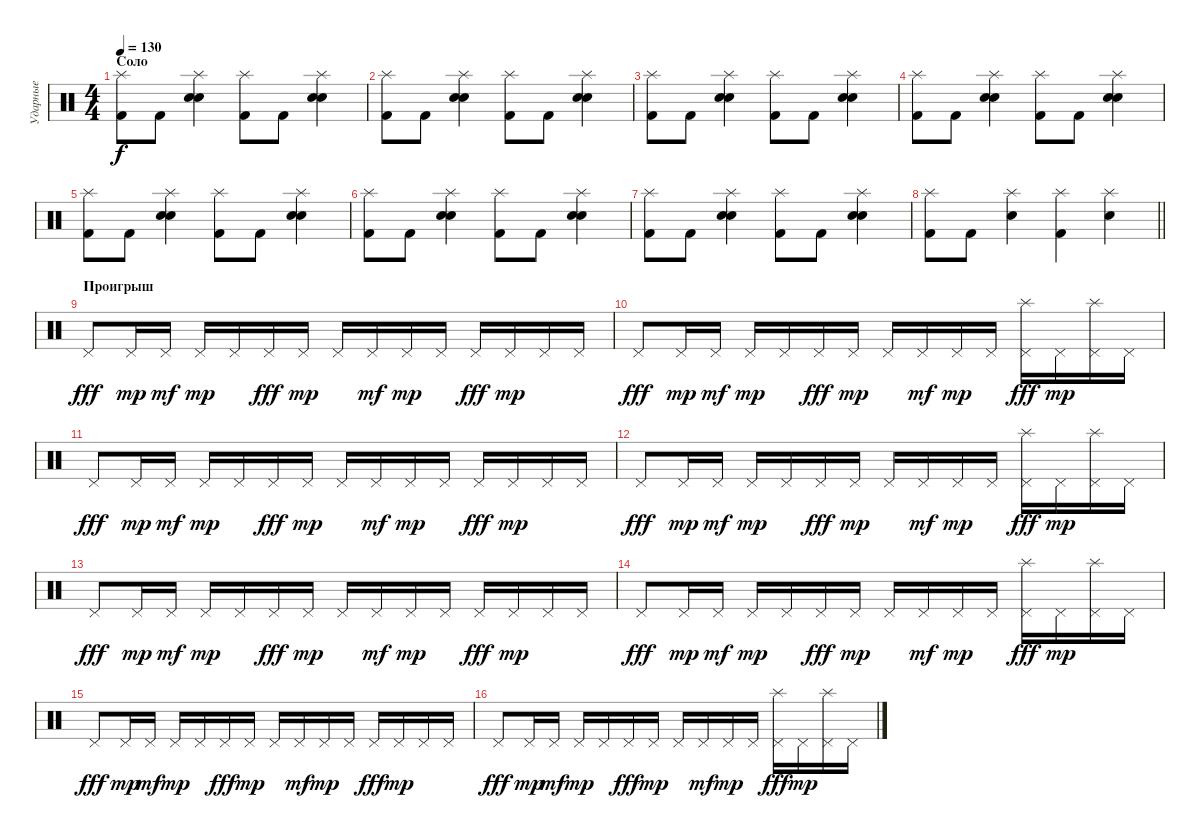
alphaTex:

\track ("Ударные" "Ударные") {instrument percussion}
\staff {score}
\articulation defaults
\ts (4 4)
\section ("" "Соло")
\tempo 130
\clef neutral
\ks c
("Splash (hit)" "Kick (hit) 2").8{dy f} "Kick (hit) 2".8 ("Splash (hit)" "Electric Snare (hit)" "Snare (hit) 2").4 ("Splash (hit)" "Kick (hit) 2").8 "Kick (hit) 2".8 ("Splash (hit)" "Electric Snare (hit)" "Snare (hit) 2").4 |
("Splash (hit)" "Kick (hit) 2").8 "Kick (hit) 2".8 ("Splash (hit)" "Electric Snare (hit)" "Snare (hit) 2").4 ("Splash (hit)" "Kick (hit) 2").8 "Kick (hit) 2".8 ("Splash (hit)" "Electric Snare (hit)" "Snare (hit) 2").4 |
("Splash (hit)" "Kick (hit) 2").8 "Kick (hit) 2".8 ("Splash (hit)" "Electric Snare (hit)" "Snare (hit) 2").4 ("Splash (hit)" "Kick (hit) 2").8 "Kick (hit) 2".8 ("Splash (hit)" "Electric Snare (hit)" "Snare (hit) 2").4 |
("Splash (hit)" "Kick (hit) 2").8 "Kick (hit) 2".8 ("Splash (hit)" "Electric Snare (hit)" "Snare (hit) 2").4 ("Splash (hit)" "Kick (hit) 2").8 "Kick (hit) 2".8 ("Splash (hit)" "Electric Snare (hit)" "Snare (hit) 2").4 |
("Splash (hit)" "Kick (hit) 2").8 "Kick (hit) 2".8 ("Splash (hit)" "Electric Snare (hit)" "Snare (hit) 2").4 ("Splash (hit)" "Kick (hit) 2").8 "Kick (hit) 2".8 ("Splash (hit)" "Electric Snare (hit)" "Snare (hit) 2").4 |
("Splash (hit)" "Kick (hit) 2").8 "Kick (hit) 2".8 ("Splash (hit)" "Electric Snare (hit)" "Snare (hit) 2").4 ("Splash (hit)" "Kick (hit) 2").8 "Kick (hit) 2".8 ("Splash (hit)" "Electric Snare (hit)" "Snare (hit) 2").4 |
("Splash (hit)" "Kick (hit) 2").8 "Kick (hit) 2".8 ("Splash (hit)" "Electric Snare (hit)" "Snare (hit) 2").4 ("Splash (hit)" "Kick (hit) 2").8 "Kick (hit) 2".8 ("Splash (hit)" "Electric Snare (hit)" "Snare (hit) 2").4 |
\barLineRight lightlight
("Splash (hit)" "Kick (hit) 2").8 "Kick (hit) 2".8 ("Splash (hit)" "Electric Snare (hit)").4 ("Splash (hit)" "Kick (hit) 2").4 ("Splash (hit)" "Electric Snare (hit)").4 |
\section ("" "Проигрыш")
"Pedal Hi-Hat (hit)".8{dy fff volume 10} "Pedal Hi-Hat (hit)".16{dy mp} "Pedal Hi-Hat (hit)".16{dy mf} "Pedal Hi-Hat (hit)".16{dy mp} "Pedal Hi-Hat (hit)".16 "Pedal Hi-Hat (hit)".16{dy fff} "Pedal Hi-Hat (hit)".16{dy mp} "Pedal Hi-Hat (hit)".16 "Pedal Hi-Hat (hit)".16{dy mf} "Pedal Hi-Hat (hit)".16{dy mp} "Pedal Hi-Hat (hit)".16 "Pedal Hi-Hat (hit)".16{dy fff} "Pedal Hi-Hat (hit)".16{dy mp} "Pedal Hi-Hat (hit)".16 "Pedal Hi-Hat (hit)".16 |
"Pedal Hi-Hat (hit)".8{dy fff} "Pedal Hi-Hat (hit)".16{dy mp} "Pedal Hi-Hat (hit)".16{dy mf} "Pedal Hi-Hat (hit)".16{dy mp} "Pedal Hi-Hat (hit)".16 "Pedal Hi-Hat (hit)".16{dy fff} "Pedal Hi-Hat (hit)".16{dy mp} "Pedal Hi-Hat (hit)".16 "Pedal Hi-Hat (hit)".16{dy mf} "Pedal Hi-Hat (hit)".16{dy mp} "Pedal Hi-Hat (hit)".16 ("Splash (hit)" "Pedal Hi-Hat (hit)").16{dy fff} "Pedal Hi-Hat (hit)".16{dy mp} ("Splash (hit)" "Pedal Hi-Hat (hit)").16 "Pedal Hi-Hat (hit)".16 |
"Pedal Hi-Hat (hit)".8{dy fff} "Pedal Hi-Hat (hit)".16{dy mp} "Pedal Hi-Hat (hit)".16{dy mf} "Pedal Hi-Hat (hit)".16{dy mp} "Pedal Hi-Hat (hit)".16 "Pedal Hi-Hat (hit)".16{dy fff} "Pedal Hi-Hat (hit)".16{dy mp} "Pedal Hi-Hat (hit)".16 "Pedal Hi-Hat (hit)".16{dy mf} "Pedal Hi-Hat (hit)".16{dy mp} "Pedal Hi-Hat (hit)".16 "Pedal Hi-Hat (hit)".16{dy fff} "Pedal Hi-Hat (hit)".16{dy mp} "Pedal Hi-Hat (hit)".16 "Pedal Hi-Hat (hit)".16 |
"Pedal Hi-Hat (hit)".8{dy fff} "Pedal Hi-Hat (hit)".16{dy mp} "Pedal Hi-Hat (hit)".16{dy mf} "Pedal Hi-Hat (hit)".16{dy mp} "Pedal Hi-Hat (hit)".16 "Pedal Hi-Hat (hit)".16{dy fff} "Pedal Hi-Hat (hit)".16{dy mp} "Pedal Hi-Hat (hit)".16 "Pedal Hi-Hat (hit)".16{dy mf} "Pedal Hi-Hat (hit)".16{dy mp} "Pedal Hi-Hat (hit)".16 ("Splash (hit)" "Pedal Hi-Hat (hit)").16{dy fff} "Pedal Hi-Hat (hit)".16{dy mp} ("Splash (hit)" "Pedal Hi-Hat (hit)").16 "Pedal Hi-Hat (hit)".16 |
"Pedal Hi-Hat (hit)".8{dy fff} "Pedal Hi-Hat (hit)".16{dy mp} "Pedal Hi-Hat (hit)".16{dy mf} "Pedal Hi-Hat (hit)".16{dy mp} "Pedal Hi-Hat (hit)".16 "Pedal Hi-Hat (hit)".16{dy fff} "Pedal Hi-Hat (hit)".16{dy mp} "Pedal Hi-Hat (hit)".16 "Pedal Hi-Hat (hit)".16{dy mf} "Pedal Hi-Hat (hit)".16{dy mp} "Pedal Hi-Hat (hit)".16 "Pedal Hi-Hat (hit)".16{dy fff} "Pedal Hi-Hat (hit)".16{dy mp} "Pedal Hi-Hat (hit)".16 "Pedal Hi-Hat (hit)".16 |
"Pedal Hi-Hat (hit)".8{dy fff} "Pedal Hi-Hat (hit)".16{dy mp} "Pedal Hi-Hat (hit)".16{dy mf} "Pedal Hi-Hat (hit)".16{dy mp} "Pedal Hi-Hat (hit)".16 "Pedal Hi-Hat (hit)".16{dy fff} "Pedal Hi-Hat (hit)".16{dy mp} "Pedal Hi-Hat (hit)".16 "Pedal Hi-Hat (hit)".16{dy mf} "Pedal Hi-Hat (hit)".16{dy mp} "Pedal Hi-Hat (hit)".16 ("Splash (hit)" "Pedal Hi-Hat (hit)").16{dy fff} "Pedal Hi-Hat (hit)".16{dy mp} ("Splash (hit)" "Pedal Hi-Hat (hit)").16 "Pedal Hi-Hat (hit)".16 |
"Pedal Hi-Hat (hit)".8{dy fff} "Pedal Hi-Hat (hit)".16{dy mp} "Pedal Hi-Hat (hit)".16{dy mf} "Pedal Hi-Hat (hit)".16{dy mp} "Pedal Hi-Hat (hit)".16 "Pedal Hi-Hat (hit)".16{dy fff} "Pedal Hi-Hat (hit)".16{dy mp} "Pedal Hi-Hat (hit)".16 "Pedal Hi-Hat (hit)".16{dy mf} "Pedal Hi-Hat (hit)".16{dy mp} "Pedal Hi-Hat (hit)".16 "Pedal Hi-Hat (hit)".16{dy fff} "Pedal Hi-Hat (hit)".16{dy mp} "Pedal Hi-Hat (hit)".16 "Pedal Hi-Hat (hit)".16 |
"Pedal Hi-Hat (hit)".8{dy fff} "Pedal Hi-Hat (hit)".16{dy mp} "Pedal Hi-Hat (hit)".16{dy mf} "Pedal Hi-Hat (hit)".16{dy mp} "Pedal Hi-Hat (hit)".16 "Pedal Hi-Hat (hit)".16{dy fff} "Pedal Hi-Hat (hit)".16{dy mp} "Pedal Hi-Hat (hit)".16 "Pedal Hi-Hat (hit)".16{dy mf} "Pedal Hi-Hat (hit)".16{dy mp} "Pedal Hi-Hat (hit)".16 ("Splash (hit)" "Pedal Hi-Hat (hit)").16{dy fff} "Pedal Hi-Hat (hit)".16{dy mp} ("Splash (hit)" "Pedal Hi-Hat (hit)").16 "Pedal Hi-Hat (hit)".16
